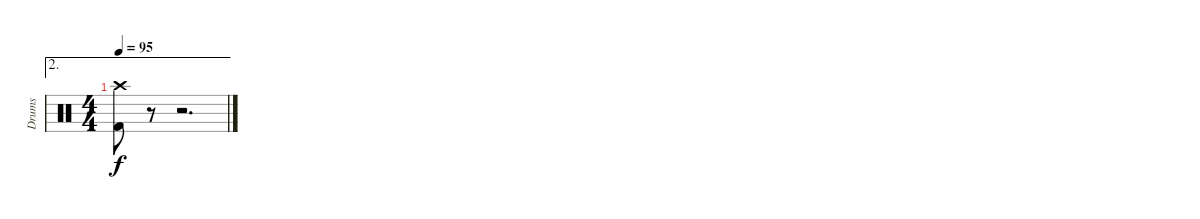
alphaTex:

\track ("Drums" "Drums") {instrument percussion}
\staff {score}
\articulation defaults
\ae 2
\ts (4 4)
\tempo 95
\clef neutral
\ks c
("Crash high (hit)" "Kick (hit) 2").8{dy f} r.8 r.2{d}
